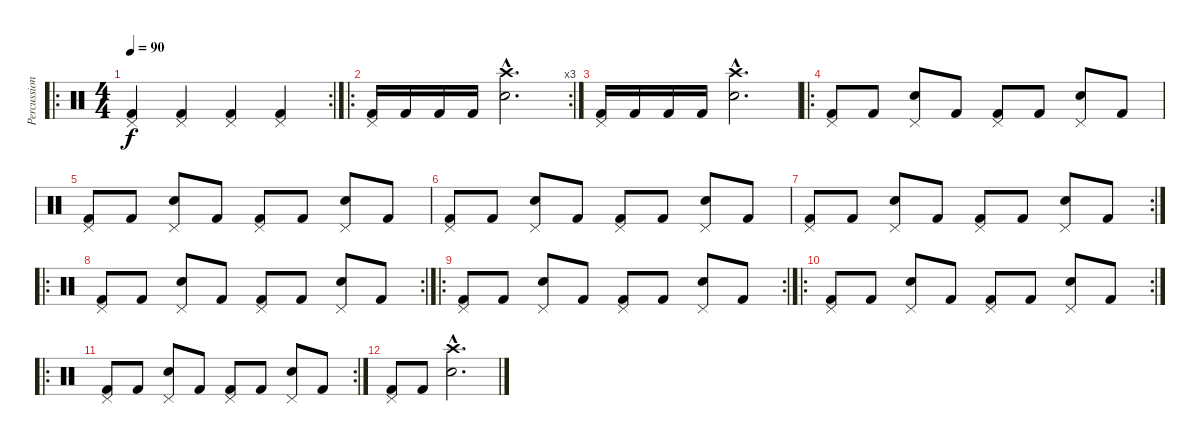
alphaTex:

\track ("Percussions" "Percussion") {instrument percussion}
\staff {score}
\articulation defaults
\ro
\rc 2
\ts (4 4)
\tempo 90
\clef neutral
\ks c
("Pedal Hi-Hat (hit)" "Kick (hit) 2").4{dy f} ("Pedal Hi-Hat (hit)" "Kick (hit) 2").4 ("Pedal Hi-Hat (hit)" "Kick (hit) 2").4 ("Pedal Hi-Hat (hit)" "Kick (hit) 2").4 |
\ro
\rc 3
("Pedal Hi-Hat (hit)" "Kick (hit) 2").16 "Kick (hit) 2".16 "Kick (hit) 2".16 "Kick (hit) 2".16 ("Crash high (hit)"{hac} "Snare (hit) 2"{hac}).2{d} |
("Pedal Hi-Hat (hit)" "Kick (hit) 2").16 "Kick (hit) 2".16 "Kick (hit) 2".16 "Kick (hit) 2".16 ("Crash high (hit)"{hac} "Snare (hit) 2"{hac}).2{d} |
\ro
("Pedal Hi-Hat (hit)" "Kick (hit) 2").8 "Kick (hit) 2".8 ("Pedal Hi-Hat (hit)" "Snare (hit) 2").8 "Kick (hit) 2".8 ("Pedal Hi-Hat (hit)" "Kick (hit) 2").8 "Kick (hit) 2".8 ("Pedal Hi-Hat (hit)" "Snare (hit) 2").8 "Kick (hit) 2".8 |
("Pedal Hi-Hat (hit)" "Kick (hit) 2").8 "Kick (hit) 2".8 ("Pedal Hi-Hat (hit)" "Snare (hit) 2").8 "Kick (hit) 2".8 ("Pedal Hi-Hat (hit)" "Kick (hit) 2").8 "Kick (hit) 2".8 ("Pedal Hi-Hat (hit)" "Snare (hit) 2").8 "Kick (hit) 2".8 |
("Pedal Hi-Hat (hit)" "Kick (hit) 2").8 "Kick (hit) 2".8 ("Pedal Hi-Hat (hit)" "Snare (hit) 2").8 "Kick (hit) 2".8 ("Pedal Hi-Hat (hit)" "Kick (hit) 2").8 "Kick (hit) 2".8 ("Pedal Hi-Hat (hit)" "Snare (hit) 2").8 "Kick (hit) 2".8 |
\rc 2
("Pedal Hi-Hat (hit)" "Kick (hit) 2").8 "Kick (hit) 2".8 ("Pedal Hi-Hat (hit)" "Snare (hit) 2").8 "Kick (hit) 2".8 ("Pedal Hi-Hat (hit)" "Kick (hit) 2").8 "Kick (hit) 2".8 ("Pedal Hi-Hat (hit)" "Snare (hit) 2").8 "Kick (hit) 2".8 |
\ro
\rc 2
("Pedal Hi-Hat (hit)" "Kick (hit) 2").8{volume 9} "Kick (hit) 2".8 ("Pedal Hi-Hat (hit)" "Snare (hit) 2").8 "Kick (hit) 2".8 ("Pedal Hi-Hat (hit)" "Kick (hit) 2").8 "Kick (hit) 2".8 ("Pedal Hi-Hat (hit)" "Snare (hit) 2").8 "Kick (hit) 2".8 |
\ro
\rc 2
("Pedal Hi-Hat (hit)" "Kick (hit) 2").8{volume 7} "Kick (hit) 2".8 ("Pedal Hi-Hat (hit)" "Snare (hit) 2").8 "Kick (hit) 2".8 ("Pedal Hi-Hat (hit)" "Kick (hit) 2").8 "Kick (hit) 2".8 ("Pedal Hi-Hat (hit)" "Snare (hit) 2").8 "Kick (hit) 2".8 |
\ro
\rc 2
("Pedal Hi-Hat (hit)" "Kick (hit) 2").8{volume 6} "Kick (hit) 2".8 ("Pedal Hi-Hat (hit)" "Snare (hit) 2").8 "Kick (hit) 2".8 ("Pedal Hi-Hat (hit)" "Kick (hit) 2").8 "Kick (hit) 2".8 ("Pedal Hi-Hat (hit)" "Snare (hit) 2").8 "Kick (hit) 2".8 |
\ro
\rc 2
("Pedal Hi-Hat (hit)" "Kick (hit) 2").8{volume 4} "Kick (hit) 2".8 ("Pedal Hi-Hat (hit)" "Snare (hit) 2").8 "Kick (hit) 2".8 ("Pedal Hi-Hat (hit)" "Kick (hit) 2").8 "Kick (hit) 2".8 ("Pedal Hi-Hat (hit)" "Snare (hit) 2").8 "Kick (hit) 2".8 |
("Pedal Hi-Hat (hit)" "Kick (hit) 2").8{volume 3} "Kick (hit) 2".8 ("Crash high (hit)"{hac} "Snare (hit) 2"{hac}).2{d}
